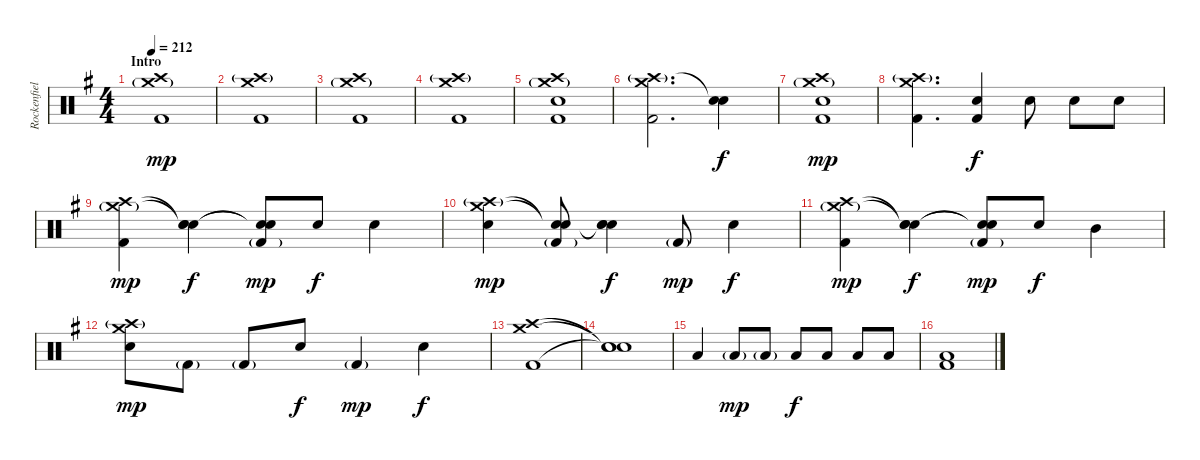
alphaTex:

\track ("Rockenfield" "Rockenfiel") {instrument percussion}
\staff {score}
\articulation defaults
\ts (4 4)
\section ("" "Intro")
\tempo 212
\clef neutral
\ks g
("Crash high (hit)" "Crash medium (hit)"{g} "Kick (hit) 2").1{dy mp} |
("Crash high (hit)"{g} "Crash medium (hit)" "Kick (hit) 2").1 |
("Crash high (hit)" "Crash medium (hit)"{g} "Kick (hit) 2").1 |
("Crash high (hit)"{g} "Crash medium (hit)" "Kick (hit) 2").1 |
("Crash high (hit)" "Crash medium (hit)"{g} "Electric Snare (hit)" "Kick (hit) 2").1 |
("Crash high (hit)"{g} "Crash medium (hit)" "Kick (hit) 2").2{d} ("Snare (hit)"{t} "Electric Snare (hit)").4{dy f} |
("Crash high (hit)" "Crash medium (hit)"{g} "Electric Snare (hit)" "Kick (hit) 2").1{dy mp} |
("Crash high (hit)"{g} "Crash medium (hit)" "Kick (hit) 2").4{d} ("Electric Snare (hit)" "Kick (hit) 2").4{dy f} "Electric Snare (hit)".8 "Electric Snare (hit)".8 "Electric Snare (hit)".8 |
("Crash high (hit)" "Crash medium (hit)"{g} "Kick (hit) 2").4{dy mp} ("Snare (hit)"{t} "Snare (hit)"{t} "Electric Snare (hit)").4{dy f} ("Snare (hit)"{t} "Snare (hit)"{t} "Kick (hit) 2"{g}).8{dy mp} "Electric Snare (hit)".8{dy f} "Electric Snare (hit)".4 |
("Crash high (hit)"{g} "Crash medium (hit)" "Electric Snare (hit)").4{dy mp} ("Snare (hit)"{t} "Snare (hit)"{t} "Kick (hit) 2"{g}).8 ("Snare (hit)"{t} "Snare (hit)"{t} "Electric Snare (hit)").4{dy f} "Kick (hit) 2"{g}.8{dy mp} "Electric Snare (hit)".4{dy f} |
("Crash high (hit)" "Crash medium (hit)"{g} "Kick (hit) 2").4{dy mp} ("Snare (hit)"{t} "Snare (hit)"{t} "Electric Snare (hit)").4{dy f} ("Snare (hit)"{t} "Snare (hit)"{t} "Kick (hit) 2"{g}).8{dy mp} "Electric Snare (hit)".8{dy f} "Mid Tom (hit)".4 |
("Crash high (hit)"{g} "Crash medium (hit)" "Electric Snare (hit)").8{dy mp} "Kick (hit) 2"{g}.8 "Kick (hit) 2"{g}.8 "Electric Snare (hit)".8{dy f} "Kick (hit) 2"{g}.4{dy mp} "Electric Snare (hit)".4{dy f} |
("Crash high (hit)" "Crash medium (hit)" "Kick (hit) 2").1 |
("Snare (hit)"{t} "Snare (hit)"{t} "Snare (hit)"{t}).1 |
"Low Floor Tom (hit)".4 "Low Floor Tom (hit)"{g}.8{dy mp} "Low Floor Tom (hit)"{g}.8 "Low Floor Tom (hit)".8{dy f} "Low Floor Tom (hit)".8 "Low Floor Tom (hit)".8 "Low Floor Tom (hit)".8 |
("Low Floor Tom (hit)" "Kick (hit) 2").1
